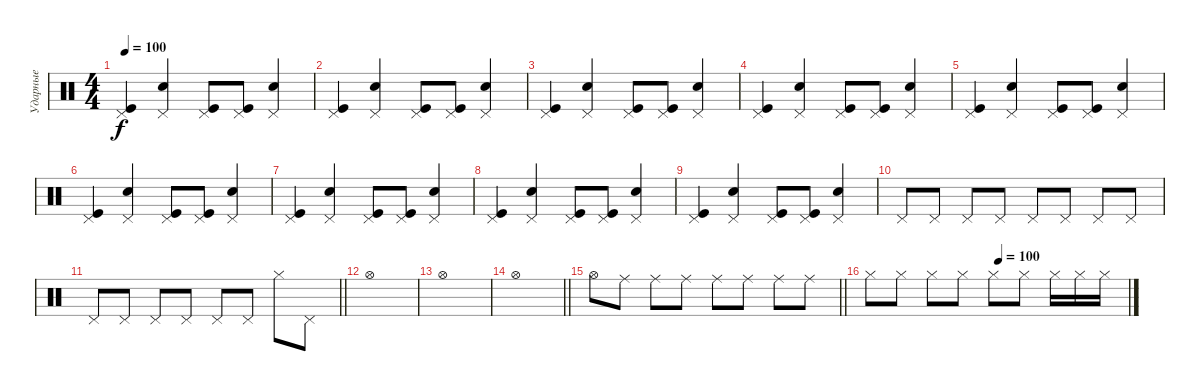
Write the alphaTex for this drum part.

\track ("Ударные" "Ударные") {instrument percussion}
\staff {score}
\articulation defaults
\ts (4 4)
\tempo 100
\clef neutral
\ks c
("Pedal Hi-Hat (hit)" "Kick (hit)").4{dy f} ("Pedal Hi-Hat (hit)" "Snare (hit) 2").4 ("Pedal Hi-Hat (hit)" "Kick (hit)").8 ("Pedal Hi-Hat (hit)" "Kick (hit)").8 ("Pedal Hi-Hat (hit)" "Snare (hit) 2").4 |
("Pedal Hi-Hat (hit)" "Kick (hit)").4 ("Pedal Hi-Hat (hit)" "Snare (hit) 2").4 ("Pedal Hi-Hat (hit)" "Kick (hit)").8 ("Pedal Hi-Hat (hit)" "Kick (hit)").8 ("Pedal Hi-Hat (hit)" "Snare (hit) 2").4 |
("Pedal Hi-Hat (hit)" "Kick (hit)").4 ("Pedal Hi-Hat (hit)" "Snare (hit) 2").4 ("Pedal Hi-Hat (hit)" "Kick (hit)").8 ("Pedal Hi-Hat (hit)" "Kick (hit)").8 ("Pedal Hi-Hat (hit)" "Snare (hit) 2").4 |
("Pedal Hi-Hat (hit)" "Kick (hit)").4 ("Pedal Hi-Hat (hit)" "Snare (hit) 2").4 ("Pedal Hi-Hat (hit)" "Kick (hit)").8 ("Pedal Hi-Hat (hit)" "Kick (hit)").8 ("Pedal Hi-Hat (hit)" "Snare (hit) 2").4 |
("Pedal Hi-Hat (hit)" "Kick (hit)").4 ("Pedal Hi-Hat (hit)" "Snare (hit) 2").4 ("Pedal Hi-Hat (hit)" "Kick (hit)").8 ("Pedal Hi-Hat (hit)" "Kick (hit)").8 ("Pedal Hi-Hat (hit)" "Snare (hit) 2").4 |
("Pedal Hi-Hat (hit)" "Kick (hit)").4 ("Pedal Hi-Hat (hit)" "Snare (hit) 2").4 ("Pedal Hi-Hat (hit)" "Kick (hit)").8 ("Pedal Hi-Hat (hit)" "Kick (hit)").8 ("Pedal Hi-Hat (hit)" "Snare (hit) 2").4 |
("Pedal Hi-Hat (hit)" "Kick (hit)").4 ("Pedal Hi-Hat (hit)" "Snare (hit) 2").4 ("Pedal Hi-Hat (hit)" "Kick (hit)").8 ("Pedal Hi-Hat (hit)" "Kick (hit)").8 ("Pedal Hi-Hat (hit)" "Snare (hit) 2").4 |
("Pedal Hi-Hat (hit)" "Kick (hit)").4 ("Pedal Hi-Hat (hit)" "Snare (hit) 2").4 ("Pedal Hi-Hat (hit)" "Kick (hit)").8 ("Pedal Hi-Hat (hit)" "Kick (hit)").8 ("Pedal Hi-Hat (hit)" "Snare (hit) 2").4 |
("Pedal Hi-Hat (hit)" "Kick (hit)").4 ("Pedal Hi-Hat (hit)" "Snare (hit) 2").4 ("Pedal Hi-Hat (hit)" "Kick (hit)").8 ("Pedal Hi-Hat (hit)" "Kick (hit)").8 ("Pedal Hi-Hat (hit)" "Snare (hit) 2").4 |
"Pedal Hi-Hat (hit)".8 "Pedal Hi-Hat (hit)".8 "Pedal Hi-Hat (hit)".8 "Pedal Hi-Hat (hit)".8 "Pedal Hi-Hat (hit)".8 "Pedal Hi-Hat (hit)".8 "Pedal Hi-Hat (hit)".8 "Pedal Hi-Hat (hit)".8 |
\barLineRight lightlight "Pedal Hi-Hat (hit)".8 "Pedal Hi-Hat (hit)".8 "Pedal Hi-Hat (hit)".8 "Pedal Hi-Hat (hit)".8 "Pedal Hi-Hat (hit)".8 "Pedal Hi-Hat (hit)".8 "Hi-Hat (closed)".8 "Pedal Hi-Hat (hit)".8
|
"Hi-Hat (open)".1 |
"Hi-Hat (open)".1 |
\barLineRight lightlight "Hi-Hat (open)".1
|
\barLineRight lightlight "Hi-Hat (open)".8 "Ride (middle)".8 "Ride (middle)".8 "Ride (middle)".8 "Ride (middle)".8 "Ride (middle)".8 "Ride (middle)".8 "Ride (middle)".8
|
\tempo (100 0.5)
"Hi-Hat (closed)".8 "Hi-Hat (closed)".8 "Hi-Hat (closed)".8 "Hi-Hat (closed)".8 "Hi-Hat (closed)".8 "Hi-Hat (closed)".8 "Hi-Hat (closed)".16 "Hi-Hat (closed)".16 "Hi-Hat (closed)".16
